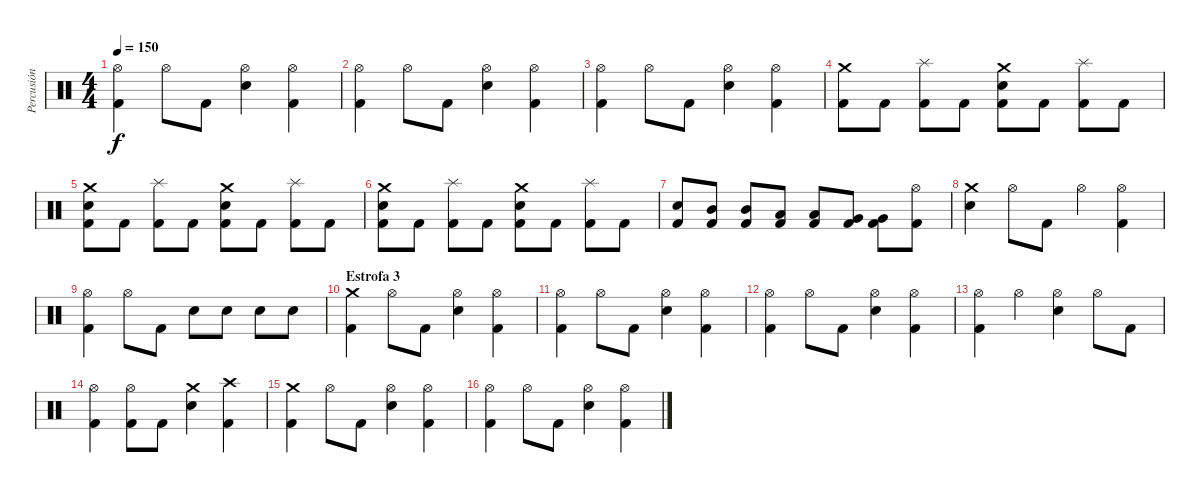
\track ("Percusión" "Percusión") {instrument percussion}
\staff {score}
\articulation defaults
\ts (4 4)
\tempo 150
\clef neutral
\ks c
("Hi-Hat (open)" "Kick (hit) 2").4{dy f} "Hi-Hat (open)".8 "Kick (hit) 2".8 ("Hi-Hat (open)" "Snare (hit) 2").4 ("Hi-Hat (open)" "Kick (hit) 2").4 |
("Hi-Hat (open)" "Kick (hit) 2").4 "Hi-Hat (open)".8 "Kick (hit) 2".8 ("Hi-Hat (open)" "Snare (hit) 2").4 ("Hi-Hat (open)" "Kick (hit) 2").4 |
("Hi-Hat (open)" "Kick (hit) 2").4 "Hi-Hat (open)".8 "Kick (hit) 2".8 ("Hi-Hat (open)" "Snare (hit) 2").4 ("Hi-Hat (open)" "Kick (hit) 2").4 |
("Crash medium (hit)" "Kick (hit) 2").8 "Kick (hit) 2".8 ("Splash (hit)" "Kick (hit) 2").8 "Kick (hit) 2".8 ("Crash medium (hit)" "Kick (hit) 2" "Snare (hit) 2").8 "Kick (hit) 2".8 ("Splash (hit)" "Kick (hit) 2").8 "Kick (hit) 2".8 |
("Crash medium (hit)" "Kick (hit) 2" "Snare (hit) 2").8 "Kick (hit) 2".8 ("Splash (hit)" "Kick (hit) 2").8 "Kick (hit) 2".8 ("Crash medium (hit)" "Kick (hit) 2" "Snare (hit) 2").8 "Kick (hit) 2".8 ("Splash (hit)" "Kick (hit) 2").8 "Kick (hit) 2".8 |
("Crash medium (hit)" "Kick (hit) 2" "Snare (hit) 2").8 "Kick (hit) 2".8 ("Splash (hit)" "Kick (hit) 2").8 "Kick (hit) 2".8 ("Crash medium (hit)" "Kick (hit) 2" "Snare (hit) 2").8 "Kick (hit) 2".8 ("Splash (hit)" "Kick (hit) 2").8 "Kick (hit) 2".8 |
("Kick (hit) 2" "Snare (hit) 2").8 ("Kick (hit) 2" "Mid Tom (hit)").8 ("Kick (hit) 2" "Mid Tom (hit)").8 ("Kick (hit) 2" "Low Tom (hit)").8 ("Kick (hit) 2" "Low Tom (hit)").8 ("Kick (hit) 2" "Very Low Tom (hit)").8 ("Kick (hit) 2" "Very Low Tom (hit)").8 ("Hi-Hat (open)" "Kick (hit) 2").8 |
("Crash medium (hit)" "Snare (hit) 2").4 "Hi-Hat (open)".8 "Kick (hit) 2".8 "Hi-Hat (open)".4 ("Hi-Hat (open)" "Kick (hit) 2").4 |
("Hi-Hat (open)" "Kick (hit) 2").4 "Hi-Hat (open)".8 "Kick (hit) 2".8 "Snare (hit) 2".8 "Snare (hit) 2".8 "Snare (hit) 2".8 "Snare (hit) 2".8 |
\section ("" "Estrofa 3")
("Crash medium (hit)" "Kick (hit) 2").4 "Hi-Hat (open)".8 "Kick (hit) 2".8 ("Hi-Hat (open)" "Snare (hit) 2").4 ("Hi-Hat (open)" "Kick (hit) 2").4 |
("Hi-Hat (open)" "Kick (hit) 2").4 "Hi-Hat (open)".8 "Kick (hit) 2".8 ("Hi-Hat (open)" "Snare (hit) 2").4 ("Hi-Hat (open)" "Kick (hit) 2").4 |
("Hi-Hat (open)" "Kick (hit) 2").4 "Hi-Hat (open)".8 "Kick (hit) 2".8 ("Hi-Hat (open)" "Snare (hit) 2").4 ("Hi-Hat (open)" "Kick (hit) 2").4 |
("Hi-Hat (open)" "Kick (hit) 2").4 "Hi-Hat (open)".4 ("Hi-Hat (open)" "Snare (hit) 2").4 "Hi-Hat (open)".8 "Kick (hit) 2".8 |
("Hi-Hat (open)" "Kick (hit) 2").4 ("Hi-Hat (open)" "Kick (hit) 2").8 "Kick (hit) 2".8 ("Crash medium (hit)" "Snare (hit) 2").4 ("Crash high (hit)" "Kick (hit) 2").4 |
("Crash medium (hit)" "Kick (hit) 2").4 "Hi-Hat (open)".8 "Kick (hit) 2".8 ("Hi-Hat (open)" "Snare (hit) 2").4 ("Hi-Hat (open)" "Kick (hit) 2").4 |
("Hi-Hat (open)" "Kick (hit) 2").4 "Hi-Hat (open)".8 "Kick (hit) 2".8 ("Hi-Hat (open)" "Snare (hit) 2").4 ("Hi-Hat (open)" "Kick (hit) 2").4
